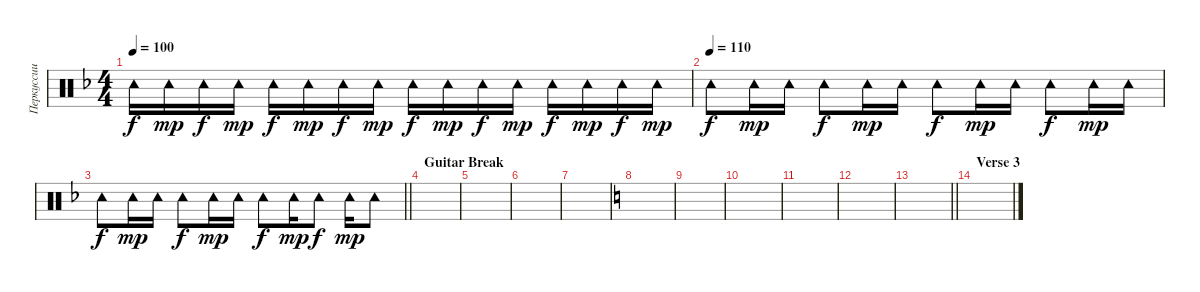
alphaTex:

\track ("Перкуссии" "Перкуссии") {instrument percussion}
\staff {score}
\articulation defaults
\ts (4 4)
\tempo 100
\clef neutral
\ks dminor "Tambourine (hit)".16{dy f} "Tambourine (hit)".16{dy mp} "Tambourine (hit)".16{dy f} "Tambourine (hit)".16{dy mp} "Tambourine (hit)".16{dy f} "Tambourine (hit)".16{dy mp} "Tambourine (hit)".16{dy f} "Tambourine (hit)".16{dy mp} "Tambourine (hit)".16{dy f} "Tambourine (hit)".16{dy mp} "Tambourine (hit)".16{dy f} "Tambourine (hit)".16{dy mp} "Tambourine (hit)".16{dy f} "Tambourine (hit)".16{dy mp} "Tambourine (hit)".16{dy f} "Tambourine (hit)".16{dy mp}
|
\tempo (110)
"Tambourine (hit)".8{dy f} "Tambourine (hit)".16{dy mp} "Tambourine (hit)".16 "Tambourine (hit)".8{dy f} "Tambourine (hit)".16{dy mp} "Tambourine (hit)".16 "Tambourine (hit)".8{dy f} "Tambourine (hit)".16{dy mp} "Tambourine (hit)".16 "Tambourine (hit)".8{dy f} "Tambourine (hit)".16{dy mp} "Tambourine (hit)".16 |
\barLineRight lightlight "Tambourine (hit)".8{dy f} "Tambourine (hit)".16{dy mp} "Tambourine (hit)".16 "Tambourine (hit)".8{dy f} "Tambourine (hit)".16{dy mp} "Tambourine (hit)".16 "Tambourine (hit)".8{dy f} "Tambourine (hit)".16{dy mp} "Tambourine (hit)".8{dy f} "Tambourine (hit)".16{dy mp} "Tambourine (hit)".8
|
\section ("" "Guitar Break")
|
|
|
|
\ks aminor
|
|
|
|
|
\barLineRight lightlight
|
\section ("" "Verse 3")
\ks c
